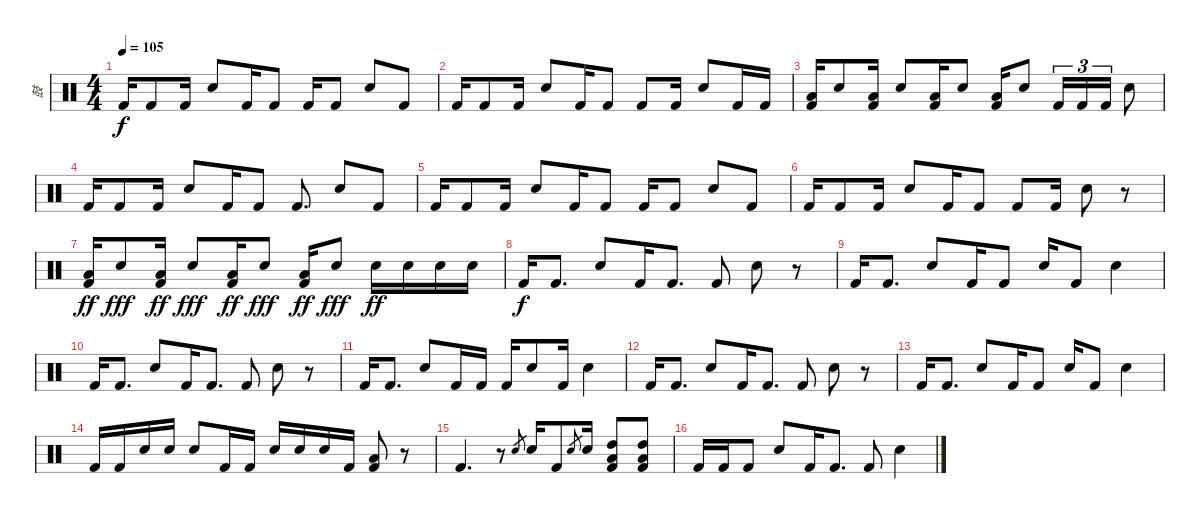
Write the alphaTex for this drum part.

\track ("鼓" "鼓") {instrument percussion}
\staff {score}
\articulation defaults
\ts (4 4)
\tempo 105
\clef neutral
\ks c "Kick (hit) 2".16{dy f} "Kick (hit) 2".8 "Kick (hit) 2".16 "Electric Snare (hit)".8 "Kick (hit) 2".16 "Kick (hit) 2".8 "Kick (hit) 2".16 "Kick (hit) 2".8 "Electric Snare (hit)".8 "Kick (hit) 2".8
|
"Kick (hit) 2".16 "Kick (hit) 2".8 "Kick (hit) 2".16 "Electric Snare (hit)".8 "Kick (hit) 2".16 "Kick (hit) 2".8 "Kick (hit) 2".8 "Kick (hit) 2".16 "Electric Snare (hit)".8 "Kick (hit) 2".16 "Kick (hit) 2".16 |
("Kick (hit) 2" "Low Floor Tom (hit)").16 "Electric Snare (hit)".8 ("Kick (hit) 2" "Low Floor Tom (hit)").16 "Electric Snare (hit)".8 ("Kick (hit) 2" "Low Floor Tom (hit)").16 "Electric Snare (hit)".8 ("Kick (hit) 2" "Low Floor Tom (hit)").16 "Electric Snare (hit)".8 "Kick (hit) 2".16{tu (3 2)} "Kick (hit) 2".16{tu (3 2)} "Kick (hit) 2".16{tu (3 2)} "Electric Snare (hit)".8 |
"Kick (hit) 2".16 "Kick (hit) 2".8 "Kick (hit) 2".16 "Electric Snare (hit)".8 "Kick (hit) 2".16 "Kick (hit) 2".8 "Kick (hit) 2".8{d} "Electric Snare (hit)".8 "Kick (hit) 2".8 |
"Kick (hit) 2".16 "Kick (hit) 2".8 "Kick (hit) 2".16 "Electric Snare (hit)".8 "Kick (hit) 2".16 "Kick (hit) 2".8 "Kick (hit) 2".16 "Kick (hit) 2".8 "Electric Snare (hit)".8 "Kick (hit) 2".8 |
"Kick (hit) 2".16 "Kick (hit) 2".8 "Kick (hit) 2".16 "Electric Snare (hit)".8 "Kick (hit) 2".16 "Kick (hit) 2".8 "Kick (hit) 2".8 "Kick (hit) 2".16 "Electric Snare (hit)".8 r.8 |
("Kick (hit) 2" "Low Floor Tom (hit)").16{dy ff} "Electric Snare (hit)".8{dy fff} ("Kick (hit) 2" "Low Floor Tom (hit)").16{dy ff} "Electric Snare (hit)".8{dy fff} ("Kick (hit) 2" "Low Floor Tom (hit)").16{dy ff} "Electric Snare (hit)".8{dy fff} ("Kick (hit) 2" "Low Floor Tom (hit)").16{dy ff} "Electric Snare (hit)".8{dy fff} "Electric Snare (hit)".16{dy ff} "Electric Snare (hit)".16 "Electric Snare (hit)".16 "Electric Snare (hit)".16 |
"Kick (hit) 2".16{dy f} "Kick (hit) 2".8{d} "Electric Snare (hit)".8 "Kick (hit) 2".16 "Kick (hit) 2".8{d} "Kick (hit) 2".8 "Electric Snare (hit)".8 r.8 |
"Kick (hit) 2".16 "Kick (hit) 2".8{d} "Electric Snare (hit)".8 "Kick (hit) 2".16 "Kick (hit) 2".8 "Electric Snare (hit)".16 "Kick (hit) 2".8 "Electric Snare (hit)".4 |
"Kick (hit) 2".16 "Kick (hit) 2".8{d} "Electric Snare (hit)".8 "Kick (hit) 2".16 "Kick (hit) 2".8{d} "Kick (hit) 2".8 "Electric Snare (hit)".8 r.8 |
"Kick (hit) 2".16 "Kick (hit) 2".8{d} "Electric Snare (hit)".8 "Kick (hit) 2".16 "Kick (hit) 2".16 "Kick (hit) 2".16 "Electric Snare (hit)".8 "Kick (hit) 2".16 "Electric Snare (hit)".4 |
"Kick (hit) 2".16 "Kick (hit) 2".8{d} "Electric Snare (hit)".8 "Kick (hit) 2".16 "Kick (hit) 2".8{d} "Kick (hit) 2".8 "Electric Snare (hit)".8 r.8 |
"Kick (hit) 2".16 "Kick (hit) 2".8{d} "Electric Snare (hit)".8 "Kick (hit) 2".16 "Kick (hit) 2".8 "Electric Snare (hit)".16 "Kick (hit) 2".8 "Electric Snare (hit)".4 |
"Kick (hit) 2".16 "Kick (hit) 2".16 "Electric Snare (hit)".16 "Electric Snare (hit)".16 "Electric Snare (hit)".8 "Kick (hit) 2".16 "Kick (hit) 2".16 "Electric Snare (hit)".16 "Electric Snare (hit)".16 "Electric Snare (hit)".16 "Kick (hit) 2".16 ("Low Floor Tom (hit)" "Kick (hit) 2").8 r.8 |
"Kick (hit) 2".4{d} r.8 "Electric Snare (hit)".8{gr} "Electric Snare (hit)".16 "Kick (hit) 2".8 "Electric Snare (hit)".8{gr} "Electric Snare (hit)".16 ("Kick (hit) 2" "Low Floor Tom (hit)" "High Tom (hit)").8 ("High Tom (hit)" "Low Floor Tom (hit)" "Kick (hit) 2").8 |
"Kick (hit) 2".16 "Kick (hit) 2".16 "Kick (hit) 2".8 "Electric Snare (hit)".8 "Kick (hit) 2".16 "Kick (hit) 2".8{d} "Kick (hit) 2".8 "Electric Snare (hit)".4
